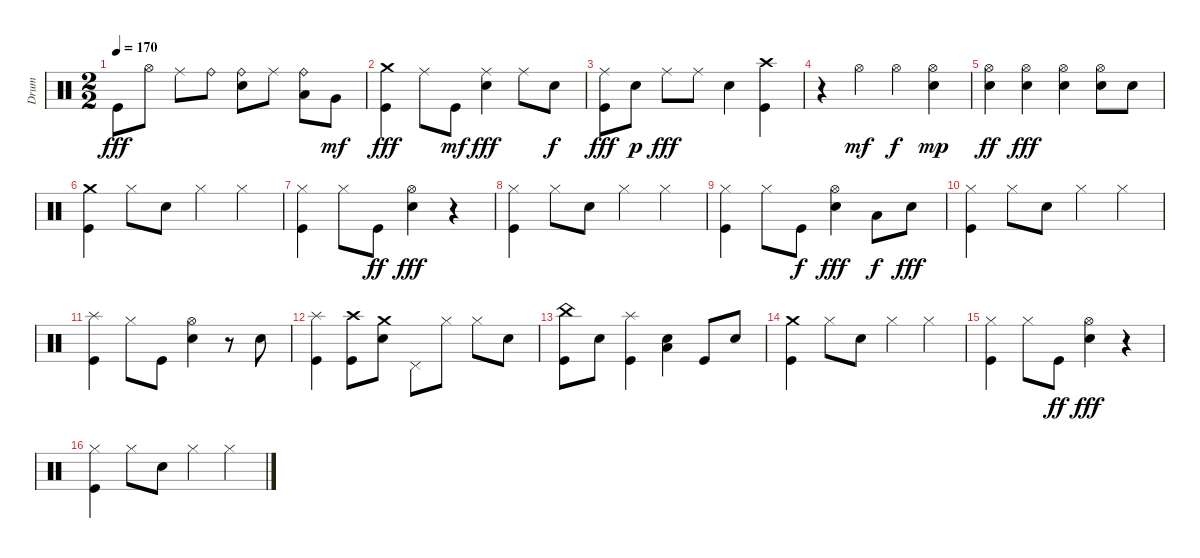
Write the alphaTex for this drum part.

\track ("Drum" "Drum") {instrument percussion}
\staff {score}
\articulation defaults
\ts (2 2)
\tempo 170
\clef neutral
\ks c "Kick (hit)".8{dy fff} "Hi-Hat (open)".8 "Ride (middle)".8 "Ride (bell)".8
("Ride (bell)" "Electric Snare (hit)").8 "Ride (middle)".8 ("Ride (bell)" "Low Tom (hit)").8 "Very Low Tom (hit)".8{dy mf} |
("Crash medium (hit)" "Kick (hit)").4{dy fff} "Ride (middle)".8 "Kick (hit)".8{dy mf} ("Ride (middle)" "Electric Snare (hit)").4{dy fff} "Ride (middle)".8 "Electric Snare (hit)".8{dy f} |
("Ride (middle)" "Kick (hit)").8{dy fff} "Electric Snare (hit)".8{dy p} "Ride (middle)".8{dy fff} "Ride (middle)".8 "Electric Snare (hit)".4 ("Crash high (hit)" "Kick (hit)").4 |
r.4 "Hi-Hat (open)".4{dy mf} "Hi-Hat (open)".4{dy f} ("Electric Snare (hit)" "Hi-Hat (open)").4{dy mp} |
("Electric Snare (hit)" "Hi-Hat (open)").4{dy ff} ("Electric Snare (hit)" "Hi-Hat (open)").4{dy fff} ("Electric Snare (hit)" "Hi-Hat (open)").4 ("Hi-Hat (open)" "Electric Snare (hit)").8 "Electric Snare (hit)".8 |
("Crash medium (hit)" "Kick (hit)").4 "Hi-Hat (closed)".8 "Electric Snare (hit)".8 "Hi-Hat (closed)".4 "Hi-Hat (closed)".4 |
("Kick (hit)" "Hi-Hat (closed)").4 "Hi-Hat (closed)".8 "Kick (hit)".8{dy ff} ("Electric Snare (hit)" "Hi-Hat (open)").4{dy fff} r.4 |
("Hi-Hat (closed)" "Kick (hit)").4 "Hi-Hat (closed)".8 "Electric Snare (hit)".8 "Hi-Hat (closed)".4 "Hi-Hat (closed)".4 |
("Kick (hit)" "Hi-Hat (closed)").4 "Hi-Hat (closed)".8 "Kick (hit)".8{dy f} ("Electric Snare (hit)" "Hi-Hat (open)").4{dy fff} "Low Floor Tom (hit)".8{dy f} "Electric Snare (hit)".8{dy fff} |
("Hi-Hat (closed)" "Kick (hit)").4 "Hi-Hat (closed)".8 "Electric Snare (hit)".8 "Hi-Hat (closed)".4 "Hi-Hat (closed)".4 |
("Splash (hit)" "Kick (hit)").4 "Hi-Hat (closed)".8 "Kick (hit)".8 ("Electric Snare (hit)" "Hi-Hat (open)").4 r.8 "Electric Snare (hit)".8 |
("Splash (hit)" "Kick (hit)").4 ("Crash high (hit)" "Kick (hit)").8 ("Crash medium (hit)" "Electric Snare (hit)").8 "Pedal Hi-Hat (hit)".8 "Hi-Hat (closed)".8 "Hi-Hat (closed)".8 "Electric Snare (hit)".8 |
("China (hit)" "Kick (hit)").8 "Electric Snare (hit)".8 ("Splash (hit)" "Kick (hit)").4 ("Low Floor Tom (hit)" "Electric Snare (hit)").4 "Kick (hit)".8 "Electric Snare (hit)".8 |
("Crash medium (hit)" "Kick (hit)").4 "Hi-Hat (closed)".8 "Electric Snare (hit)".8 "Hi-Hat (closed)".4 "Hi-Hat (closed)".4 |
("Kick (hit)" "Hi-Hat (closed)").4 "Hi-Hat (closed)".8 "Kick (hit)".8{dy ff} ("Electric Snare (hit)" "Hi-Hat (open)").4{dy fff} r.4 |
("Hi-Hat (closed)" "Kick (hit)").4 "Hi-Hat (closed)".8 "Electric Snare (hit)".8 "Hi-Hat (closed)".4 "Hi-Hat (closed)".4
